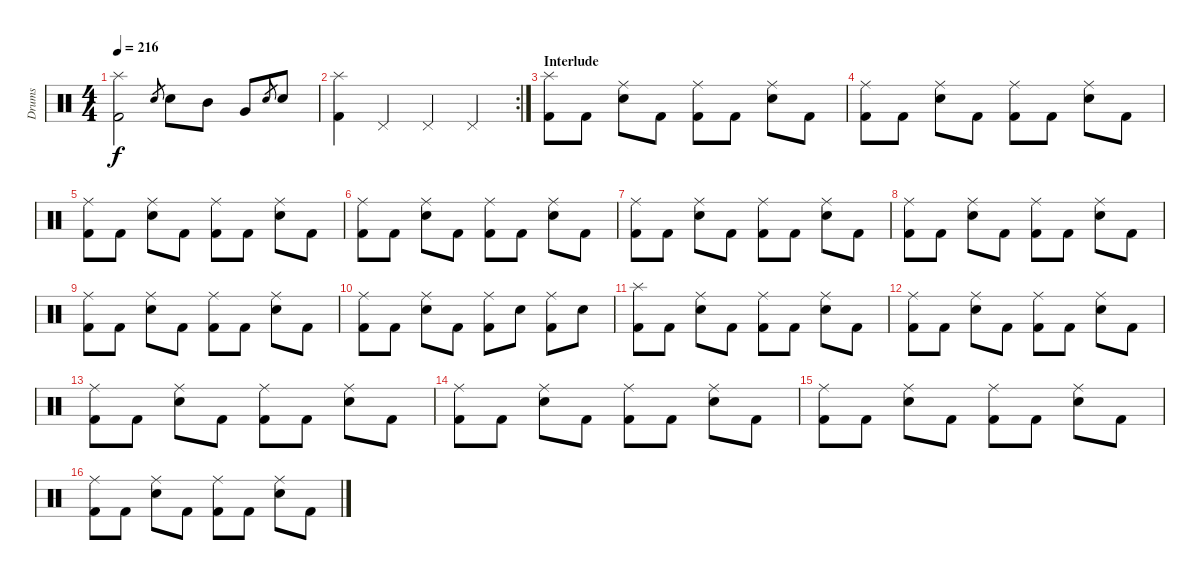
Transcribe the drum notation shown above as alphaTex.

\track ("Drums" "Drums") {instrument percussion}
\staff {score}
\articulation defaults
\ts (4 4)
\tempo 216
\clef neutral
\ks c
("Splash (hit)" "Kick (hit) 2").2{dy f} "Electric Snare (hit)".8{gr} "Electric Snare (hit)".8 "Mid Tom (hit)".8 "Very Low Tom (hit)".8 "Electric Snare (hit)".8{gr} "Electric Snare (hit)".8 |
\rc 2
("Splash (hit)" "Kick (hit) 2").4 "Pedal Hi-Hat (hit)".4 "Pedal Hi-Hat (hit)".4 "Pedal Hi-Hat (hit)".4 |
\section ("" "Interlude")
("Splash (hit)" "Kick (hit) 2").8 "Kick (hit) 2".8 ("Ride (middle)" "Electric Snare (hit)").8 "Kick (hit) 2".8 ("Ride (middle)" "Kick (hit) 2").8 "Kick (hit) 2".8 ("Ride (middle)" "Electric Snare (hit)").8 "Kick (hit) 2".8 |
("Ride (middle)" "Kick (hit) 2").8 "Kick (hit) 2".8 ("Ride (middle)" "Electric Snare (hit)").8 "Kick (hit) 2".8 ("Ride (middle)" "Kick (hit) 2").8 "Kick (hit) 2".8 ("Ride (middle)" "Electric Snare (hit)").8 "Kick (hit) 2".8 |
("Ride (middle)" "Kick (hit) 2").8 "Kick (hit) 2".8 ("Ride (middle)" "Electric Snare (hit)").8 "Kick (hit) 2".8 ("Ride (middle)" "Kick (hit) 2").8 "Kick (hit) 2".8 ("Ride (middle)" "Electric Snare (hit)").8 "Kick (hit) 2".8 |
("Ride (middle)" "Kick (hit) 2").8 "Kick (hit) 2".8 ("Ride (middle)" "Electric Snare (hit)").8 "Kick (hit) 2".8 ("Ride (middle)" "Kick (hit) 2").8 "Kick (hit) 2".8 ("Ride (middle)" "Electric Snare (hit)").8 "Kick (hit) 2".8 |
("Ride (middle)" "Kick (hit) 2").8 "Kick (hit) 2".8 ("Ride (middle)" "Electric Snare (hit)").8 "Kick (hit) 2".8 ("Ride (middle)" "Kick (hit) 2").8 "Kick (hit) 2".8 ("Ride (middle)" "Electric Snare (hit)").8 "Kick (hit) 2".8 |
("Ride (middle)" "Kick (hit) 2").8 "Kick (hit) 2".8 ("Ride (middle)" "Electric Snare (hit)").8 "Kick (hit) 2".8 ("Ride (middle)" "Kick (hit) 2").8 "Kick (hit) 2".8 ("Ride (middle)" "Electric Snare (hit)").8 "Kick (hit) 2".8 |
("Ride (middle)" "Kick (hit) 2").8 "Kick (hit) 2".8 ("Ride (middle)" "Electric Snare (hit)").8 "Kick (hit) 2".8 ("Ride (middle)" "Kick (hit) 2").8 "Kick (hit) 2".8 ("Ride (middle)" "Electric Snare (hit)").8 "Kick (hit) 2".8 |
("Ride (middle)" "Kick (hit) 2").8 "Kick (hit) 2".8 ("Ride (middle)" "Electric Snare (hit)").8 "Kick (hit) 2".8 ("Ride (middle)" "Kick (hit) 2").8 "Electric Snare (hit)".8 ("Ride (middle)" "Kick (hit) 2").8 "Electric Snare (hit)".8 |
("Splash (hit)" "Kick (hit) 2").8 "Kick (hit) 2".8 ("Ride (middle)" "Electric Snare (hit)").8 "Kick (hit) 2".8 ("Ride (middle)" "Kick (hit) 2").8 "Kick (hit) 2".8 ("Ride (middle)" "Electric Snare (hit)").8 "Kick (hit) 2".8 |
("Ride (middle)" "Kick (hit) 2").8 "Kick (hit) 2".8 ("Ride (middle)" "Electric Snare (hit)").8 "Kick (hit) 2".8 ("Ride (middle)" "Kick (hit) 2").8 "Kick (hit) 2".8 ("Ride (middle)" "Electric Snare (hit)").8 "Kick (hit) 2".8 |
("Ride (middle)" "Kick (hit) 2").8 "Kick (hit) 2".8 ("Ride (middle)" "Electric Snare (hit)").8 "Kick (hit) 2".8 ("Ride (middle)" "Kick (hit) 2").8 "Kick (hit) 2".8 ("Ride (middle)" "Electric Snare (hit)").8 "Kick (hit) 2".8 |
("Ride (middle)" "Kick (hit) 2").8 "Kick (hit) 2".8 ("Ride (middle)" "Electric Snare (hit)").8 "Kick (hit) 2".8 ("Ride (middle)" "Kick (hit) 2").8 "Kick (hit) 2".8 ("Ride (middle)" "Electric Snare (hit)").8 "Kick (hit) 2".8 |
("Ride (middle)" "Kick (hit) 2").8 "Kick (hit) 2".8 ("Ride (middle)" "Electric Snare (hit)").8 "Kick (hit) 2".8 ("Ride (middle)" "Kick (hit) 2").8 "Kick (hit) 2".8 ("Ride (middle)" "Electric Snare (hit)").8 "Kick (hit) 2".8 |
("Ride (middle)" "Kick (hit) 2").8 "Kick (hit) 2".8 ("Ride (middle)" "Electric Snare (hit)").8 "Kick (hit) 2".8 ("Ride (middle)" "Kick (hit) 2").8 "Kick (hit) 2".8 ("Ride (middle)" "Electric Snare (hit)").8 "Kick (hit) 2".8
